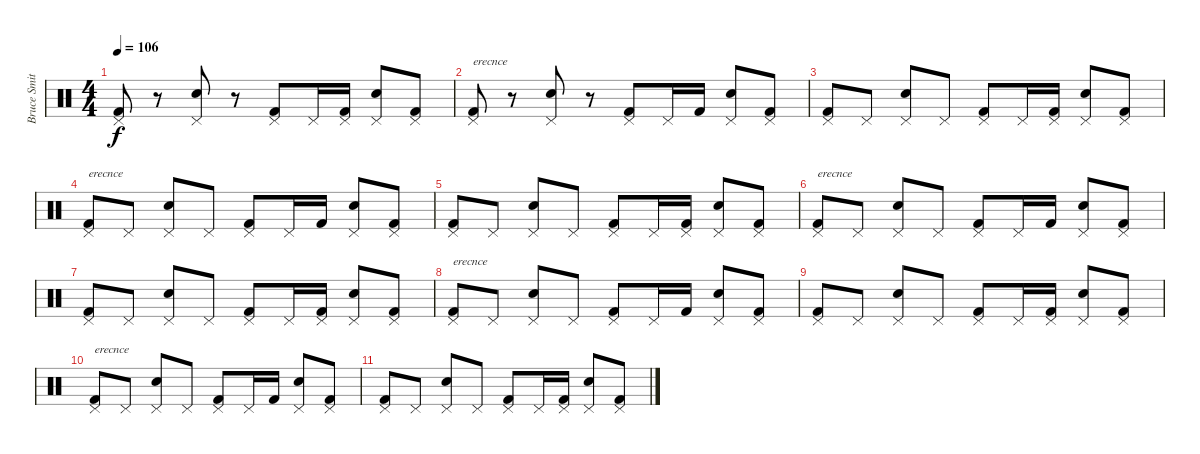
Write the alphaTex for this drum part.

\track ("Bruce Smith" "Bruce Smit") {instrument percussion}
\staff {score}
\articulation defaults
\ts (4 4)
\tempo 106
\clef neutral
\ks c
("Pedal Hi-Hat (hit)" "Kick (hit) 2").8{dy f} r.8 ("Pedal Hi-Hat (hit)" "Snare (hit) 2").8 r.8 ("Pedal Hi-Hat (hit)" "Kick (hit) 2").8 "Pedal Hi-Hat (hit)".16 ("Pedal Hi-Hat (hit)" "Kick (hit) 2").16 ("Pedal Hi-Hat (hit)" "Snare (hit) 2").8 ("Pedal Hi-Hat (hit)" "Kick (hit) 2").8 |
("Pedal Hi-Hat (hit)" "Kick (hit) 2").8{txt "erecnce"} r.8 ("Pedal Hi-Hat (hit)" "Snare (hit) 2").8 r.8 ("Pedal Hi-Hat (hit)" "Kick (hit) 2").8 "Pedal Hi-Hat (hit)".16 "Kick (hit) 2".16 ("Pedal Hi-Hat (hit)" "Snare (hit) 2").8 ("Pedal Hi-Hat (hit)" "Kick (hit) 2").8 |
("Pedal Hi-Hat (hit)" "Kick (hit) 2").8 "Pedal Hi-Hat (hit)".8 ("Pedal Hi-Hat (hit)" "Snare (hit) 2").8 "Pedal Hi-Hat (hit)".8 ("Pedal Hi-Hat (hit)" "Kick (hit) 2").8 "Pedal Hi-Hat (hit)".16 ("Pedal Hi-Hat (hit)" "Kick (hit) 2").16 ("Pedal Hi-Hat (hit)" "Snare (hit) 2").8 ("Pedal Hi-Hat (hit)" "Kick (hit) 2").8 |
("Pedal Hi-Hat (hit)" "Kick (hit) 2").8{txt "erecnce"} "Pedal Hi-Hat (hit)".8 ("Pedal Hi-Hat (hit)" "Snare (hit) 2").8 "Pedal Hi-Hat (hit)".8 ("Pedal Hi-Hat (hit)" "Kick (hit) 2").8 "Pedal Hi-Hat (hit)".16 "Kick (hit) 2".16 ("Pedal Hi-Hat (hit)" "Snare (hit) 2").8 ("Pedal Hi-Hat (hit)" "Kick (hit) 2").8 |
("Pedal Hi-Hat (hit)" "Kick (hit) 2").8 "Pedal Hi-Hat (hit)".8 ("Pedal Hi-Hat (hit)" "Snare (hit) 2").8 "Pedal Hi-Hat (hit)".8 ("Pedal Hi-Hat (hit)" "Kick (hit) 2").8 "Pedal Hi-Hat (hit)".16 ("Pedal Hi-Hat (hit)" "Kick (hit) 2").16 ("Pedal Hi-Hat (hit)" "Snare (hit) 2").8 ("Pedal Hi-Hat (hit)" "Kick (hit) 2").8 |
("Pedal Hi-Hat (hit)" "Kick (hit) 2").8{txt "erecnce"} "Pedal Hi-Hat (hit)".8 ("Pedal Hi-Hat (hit)" "Snare (hit) 2").8 "Pedal Hi-Hat (hit)".8 ("Pedal Hi-Hat (hit)" "Kick (hit) 2").8 "Pedal Hi-Hat (hit)".16 "Kick (hit) 2".16 ("Pedal Hi-Hat (hit)" "Snare (hit) 2").8 ("Pedal Hi-Hat (hit)" "Kick (hit) 2").8 |
("Pedal Hi-Hat (hit)" "Kick (hit) 2").8 "Pedal Hi-Hat (hit)".8 ("Pedal Hi-Hat (hit)" "Snare (hit) 2").8 "Pedal Hi-Hat (hit)".8 ("Pedal Hi-Hat (hit)" "Kick (hit) 2").8 "Pedal Hi-Hat (hit)".16 ("Pedal Hi-Hat (hit)" "Kick (hit) 2").16 ("Pedal Hi-Hat (hit)" "Snare (hit) 2").8 ("Pedal Hi-Hat (hit)" "Kick (hit) 2").8 |
("Pedal Hi-Hat (hit)" "Kick (hit) 2").8{txt "erecnce"} "Pedal Hi-Hat (hit)".8 ("Pedal Hi-Hat (hit)" "Snare (hit) 2").8 "Pedal Hi-Hat (hit)".8 ("Pedal Hi-Hat (hit)" "Kick (hit) 2").8 "Pedal Hi-Hat (hit)".16 "Kick (hit) 2".16 ("Pedal Hi-Hat (hit)" "Snare (hit) 2").8 ("Pedal Hi-Hat (hit)" "Kick (hit) 2").8 |
("Pedal Hi-Hat (hit)" "Kick (hit) 2").8 "Pedal Hi-Hat (hit)".8 ("Pedal Hi-Hat (hit)" "Snare (hit) 2").8 "Pedal Hi-Hat (hit)".8 ("Pedal Hi-Hat (hit)" "Kick (hit) 2").8 "Pedal Hi-Hat (hit)".16 ("Pedal Hi-Hat (hit)" "Kick (hit) 2").16 ("Pedal Hi-Hat (hit)" "Snare (hit) 2").8 ("Pedal Hi-Hat (hit)" "Kick (hit) 2").8 |
("Pedal Hi-Hat (hit)" "Kick (hit) 2").8{txt "erecnce"} "Pedal Hi-Hat (hit)".8 ("Pedal Hi-Hat (hit)" "Snare (hit) 2").8 "Pedal Hi-Hat (hit)".8 ("Pedal Hi-Hat (hit)" "Kick (hit) 2").8 "Pedal Hi-Hat (hit)".16 "Kick (hit) 2".16 ("Pedal Hi-Hat (hit)" "Snare (hit) 2").8 ("Pedal Hi-Hat (hit)" "Kick (hit) 2").8 |
("Pedal Hi-Hat (hit)" "Kick (hit) 2").8 "Pedal Hi-Hat (hit)".8 ("Pedal Hi-Hat (hit)" "Snare (hit) 2").8 "Pedal Hi-Hat (hit)".8 ("Pedal Hi-Hat (hit)" "Kick (hit) 2").8 "Pedal Hi-Hat (hit)".16 ("Pedal Hi-Hat (hit)" "Kick (hit) 2").16 ("Pedal Hi-Hat (hit)" "Snare (hit) 2").8 ("Pedal Hi-Hat (hit)" "Kick (hit) 2").8
